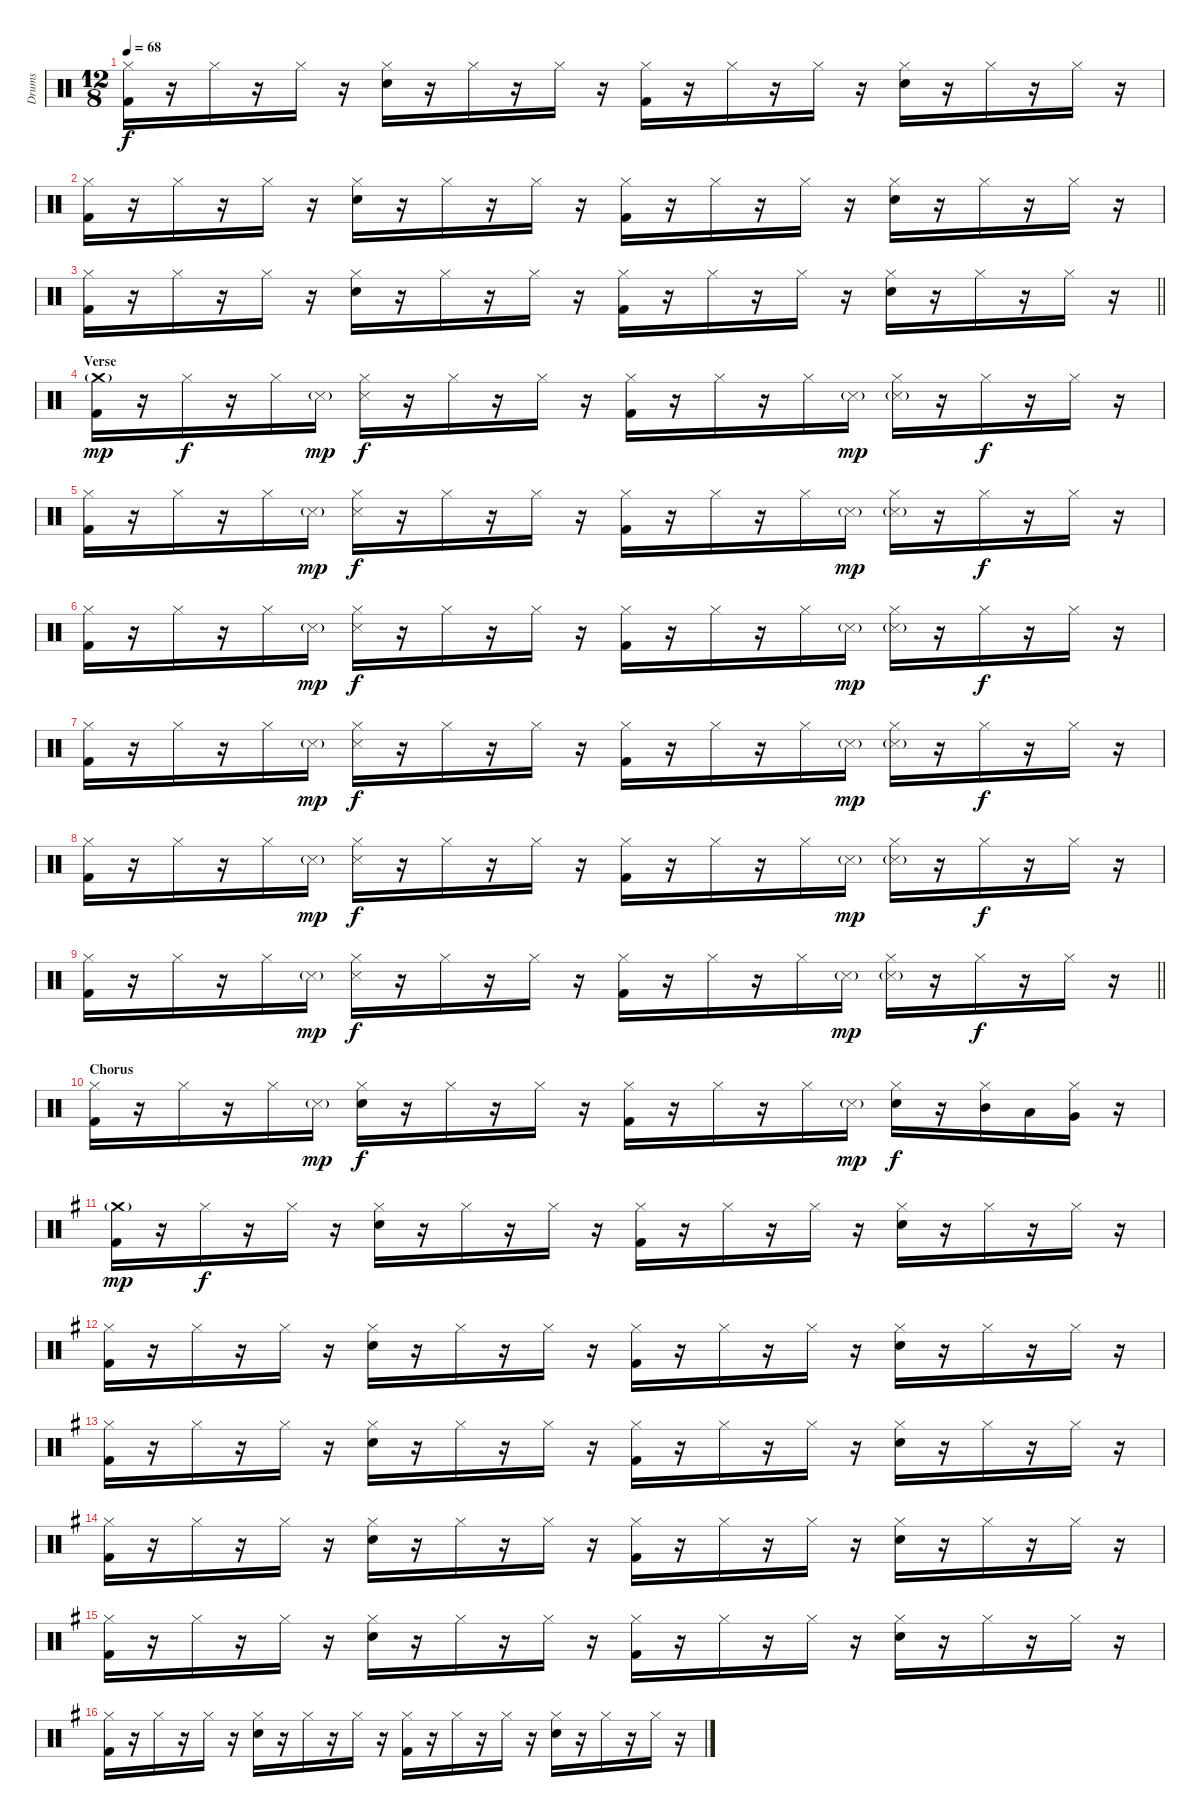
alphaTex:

\track ("Drums" "Drums") {instrument percussion}
\staff {score}
\articulation defaults
\ts (12 8)
\tempo 68
\clef neutral
\ks c
("Hi-Hat (closed)" "Kick (hit) 2").16{dy f} r.16 "Hi-Hat (closed)".16 r.16 "Hi-Hat (closed)".16 r.16 ("Hi-Hat (closed)" "Snare (hit) 2").16 r.16 "Hi-Hat (closed)".16 r.16 "Hi-Hat (closed)".16 r.16 ("Hi-Hat (closed)" "Kick (hit) 2").16 r.16 "Hi-Hat (closed)".16 r.16 "Hi-Hat (closed)".16 r.16 ("Hi-Hat (closed)" "Snare (hit) 2").16 r.16 "Hi-Hat (closed)".16 r.16 "Hi-Hat (closed)".16 r.16 |
("Hi-Hat (closed)" "Kick (hit) 2").16 r.16 "Hi-Hat (closed)".16 r.16 "Hi-Hat (closed)".16 r.16 ("Hi-Hat (closed)" "Snare (hit) 2").16 r.16 "Hi-Hat (closed)".16 r.16 "Hi-Hat (closed)".16 r.16 ("Hi-Hat (closed)" "Kick (hit) 2").16 r.16 "Hi-Hat (closed)".16 r.16 "Hi-Hat (closed)".16 r.16 ("Hi-Hat (closed)" "Snare (hit) 2").16 r.16 "Hi-Hat (closed)".16 r.16 "Hi-Hat (closed)".16 r.16 |
\barLineRight lightlight
("Hi-Hat (closed)" "Kick (hit) 2").16 r.16 "Hi-Hat (closed)".16 r.16 "Hi-Hat (closed)".16 r.16 ("Hi-Hat (closed)" "Snare (hit) 2").16 r.16 "Hi-Hat (closed)".16 r.16 "Hi-Hat (closed)".16 r.16 ("Hi-Hat (closed)" "Kick (hit) 2").16 r.16 "Hi-Hat (closed)".16 r.16 "Hi-Hat (closed)".16 r.16 ("Hi-Hat (closed)" "Snare (hit) 2").16 r.16 "Hi-Hat (closed)".16 r.16 "Hi-Hat (closed)".16 r.16 |
\section ("" "Verse")
("Crash medium (hit)"{g} "Kick (hit) 2").16{dy mp} r.16 "Hi-Hat (closed)".16{dy f} r.16 "Hi-Hat (closed)".16 "Snare (side stick) 3"{g}.16{dy mp} ("Hi-Hat (closed)" "Snare (side stick) 3").16{dy f} r.16 "Hi-Hat (closed)".16 r.16 "Hi-Hat (closed)".16 r.16 ("Hi-Hat (closed)" "Kick (hit) 2").16 r.16 "Hi-Hat (closed)".16 r.16 "Hi-Hat (closed)".16 "Snare (side stick) 3"{g}.16{dy mp} ("Hi-Hat (closed)" "Snare (side stick) 3"{g}).16 r.16 "Hi-Hat (closed)".16{dy f} r.16 "Hi-Hat (closed)".16 r.16 |
("Hi-Hat (closed)" "Kick (hit) 2").16 r.16 "Hi-Hat (closed)".16 r.16 "Hi-Hat (closed)".16 "Snare (side stick) 3"{g}.16{dy mp} ("Hi-Hat (closed)" "Snare (side stick) 3").16{dy f} r.16 "Hi-Hat (closed)".16 r.16 "Hi-Hat (closed)".16 r.16 ("Hi-Hat (closed)" "Kick (hit) 2").16 r.16 "Hi-Hat (closed)".16 r.16 "Hi-Hat (closed)".16 "Snare (side stick) 3"{g}.16{dy mp} ("Hi-Hat (closed)" "Snare (side stick) 3"{g}).16 r.16 "Hi-Hat (closed)".16{dy f} r.16 "Hi-Hat (closed)".16 r.16 |
("Hi-Hat (closed)" "Kick (hit) 2").16 r.16 "Hi-Hat (closed)".16 r.16 "Hi-Hat (closed)".16 "Snare (side stick) 3"{g}.16{dy mp} ("Hi-Hat (closed)" "Snare (side stick) 3").16{dy f} r.16 "Hi-Hat (closed)".16 r.16 "Hi-Hat (closed)".16 r.16 ("Hi-Hat (closed)" "Kick (hit) 2").16 r.16 "Hi-Hat (closed)".16 r.16 "Hi-Hat (closed)".16 "Snare (side stick) 3"{g}.16{dy mp} ("Hi-Hat (closed)" "Snare (side stick) 3"{g}).16 r.16 "Hi-Hat (closed)".16{dy f} r.16 "Hi-Hat (closed)".16 r.16 |
("Hi-Hat (closed)" "Kick (hit) 2").16 r.16 "Hi-Hat (closed)".16 r.16 "Hi-Hat (closed)".16 "Snare (side stick) 3"{g}.16{dy mp} ("Hi-Hat (closed)" "Snare (side stick) 3").16{dy f} r.16 "Hi-Hat (closed)".16 r.16 "Hi-Hat (closed)".16 r.16 ("Hi-Hat (closed)" "Kick (hit) 2").16 r.16 "Hi-Hat (closed)".16 r.16 "Hi-Hat (closed)".16 "Snare (side stick) 3"{g}.16{dy mp} ("Hi-Hat (closed)" "Snare (side stick) 3"{g}).16 r.16 "Hi-Hat (closed)".16{dy f} r.16 "Hi-Hat (closed)".16 r.16 |
("Hi-Hat (closed)" "Kick (hit) 2").16 r.16 "Hi-Hat (closed)".16 r.16 "Hi-Hat (closed)".16 "Snare (side stick) 3"{g}.16{dy mp} ("Hi-Hat (closed)" "Snare (side stick) 3").16{dy f} r.16 "Hi-Hat (closed)".16 r.16 "Hi-Hat (closed)".16 r.16 ("Hi-Hat (closed)" "Kick (hit) 2").16 r.16 "Hi-Hat (closed)".16 r.16 "Hi-Hat (closed)".16 "Snare (side stick) 3"{g}.16{dy mp} ("Hi-Hat (closed)" "Snare (side stick) 3"{g}).16 r.16 "Hi-Hat (closed)".16{dy f} r.16 "Hi-Hat (closed)".16 r.16 |
\barLineRight lightlight
("Hi-Hat (closed)" "Kick (hit) 2").16 r.16 "Hi-Hat (closed)".16 r.16 "Hi-Hat (closed)".16 "Snare (side stick) 3"{g}.16{dy mp} ("Hi-Hat (closed)" "Snare (side stick) 3").16{dy f} r.16 "Hi-Hat (closed)".16 r.16 "Hi-Hat (closed)".16 r.16 ("Hi-Hat (closed)" "Kick (hit) 2").16 r.16 "Hi-Hat (closed)".16 r.16 "Hi-Hat (closed)".16 "Snare (side stick) 3"{g}.16{dy mp} ("Hi-Hat (closed)" "Snare (side stick) 3"{g}).16 r.16 "Hi-Hat (closed)".16{dy f} r.16 "Hi-Hat (closed)".16 r.16 |
\section ("" "Chorus")
("Hi-Hat (closed)" "Kick (hit) 2").16 r.16 "Hi-Hat (closed)".16 r.16 "Hi-Hat (closed)".16 "Snare (side stick) 3"{g}.16{dy mp} ("Hi-Hat (closed)" "Snare (hit) 2").16{dy f} r.16 "Hi-Hat (closed)".16 r.16 "Hi-Hat (closed)".16 r.16 ("Hi-Hat (closed)" "Kick (hit) 2").16 r.16 "Hi-Hat (closed)".16 r.16 "Hi-Hat (closed)".16 "Snare (side stick) 3"{g}.16{dy mp} ("Hi-Hat (closed)" "Snare (hit) 2").16{dy f} r.16 ("Hi-Hat (closed)" "Mid Tom (hit)").16 "Low Tom (hit)".16 ("Hi-Hat (closed)" "Very Low Tom (hit)").16 r.16 |
\ks g
("Crash medium (hit)"{g} "Kick (hit) 2").16{dy mp} r.16 "Hi-Hat (closed)".16{dy f} r.16 "Hi-Hat (closed)".16 r.16 ("Hi-Hat (closed)" "Snare (hit) 2").16 r.16 "Hi-Hat (closed)".16 r.16 "Hi-Hat (closed)".16 r.16 ("Hi-Hat (closed)" "Kick (hit) 2").16 r.16 "Hi-Hat (closed)".16 r.16 "Hi-Hat (closed)".16 r.16 ("Hi-Hat (closed)" "Snare (hit) 2").16 r.16 "Hi-Hat (closed)".16 r.16 "Hi-Hat (closed)".16 r.16 |
("Hi-Hat (closed)" "Kick (hit) 2").16 r.16 "Hi-Hat (closed)".16 r.16 "Hi-Hat (closed)".16 r.16 ("Hi-Hat (closed)" "Snare (hit) 2").16 r.16 "Hi-Hat (closed)".16 r.16 "Hi-Hat (closed)".16 r.16 ("Hi-Hat (closed)" "Kick (hit) 2").16 r.16 "Hi-Hat (closed)".16 r.16 "Hi-Hat (closed)".16 r.16 ("Hi-Hat (closed)" "Snare (hit) 2").16 r.16 "Hi-Hat (closed)".16 r.16 "Hi-Hat (closed)".16 r.16 |
("Hi-Hat (closed)" "Kick (hit) 2").16 r.16 "Hi-Hat (closed)".16 r.16 "Hi-Hat (closed)".16 r.16 ("Hi-Hat (closed)" "Snare (hit) 2").16 r.16 "Hi-Hat (closed)".16 r.16 "Hi-Hat (closed)".16 r.16 ("Hi-Hat (closed)" "Kick (hit) 2").16 r.16 "Hi-Hat (closed)".16 r.16 "Hi-Hat (closed)".16 r.16 ("Hi-Hat (closed)" "Snare (hit) 2").16 r.16 "Hi-Hat (closed)".16 r.16 "Hi-Hat (closed)".16 r.16 |
("Hi-Hat (closed)" "Kick (hit) 2").16 r.16 "Hi-Hat (closed)".16 r.16 "Hi-Hat (closed)".16 r.16 ("Hi-Hat (closed)" "Snare (hit) 2").16 r.16 "Hi-Hat (closed)".16 r.16 "Hi-Hat (closed)".16 r.16 ("Hi-Hat (closed)" "Kick (hit) 2").16 r.16 "Hi-Hat (closed)".16 r.16 "Hi-Hat (closed)".16 r.16 ("Hi-Hat (closed)" "Snare (hit) 2").16 r.16 "Hi-Hat (closed)".16 r.16 "Hi-Hat (closed)".16 r.16 |
("Hi-Hat (closed)" "Kick (hit) 2").16 r.16 "Hi-Hat (closed)".16 r.16 "Hi-Hat (closed)".16 r.16 ("Hi-Hat (closed)" "Snare (hit) 2").16 r.16 "Hi-Hat (closed)".16 r.16 "Hi-Hat (closed)".16 r.16 ("Hi-Hat (closed)" "Kick (hit) 2").16 r.16 "Hi-Hat (closed)".16 r.16 "Hi-Hat (closed)".16 r.16 ("Hi-Hat (closed)" "Snare (hit) 2").16 r.16 "Hi-Hat (closed)".16 r.16 "Hi-Hat (closed)".16 r.16 |
("Hi-Hat (closed)" "Kick (hit) 2").16 r.16 "Hi-Hat (closed)".16 r.16 "Hi-Hat (closed)".16 r.16 ("Hi-Hat (closed)" "Snare (hit) 2").16 r.16 "Hi-Hat (closed)".16 r.16 "Hi-Hat (closed)".16 r.16 ("Hi-Hat (closed)" "Kick (hit) 2").16 r.16 "Hi-Hat (closed)".16 r.16 "Hi-Hat (closed)".16 r.16 ("Hi-Hat (closed)" "Snare (hit) 2").16 r.16 "Hi-Hat (closed)".16 r.16 "Hi-Hat (closed)".16 r.16
